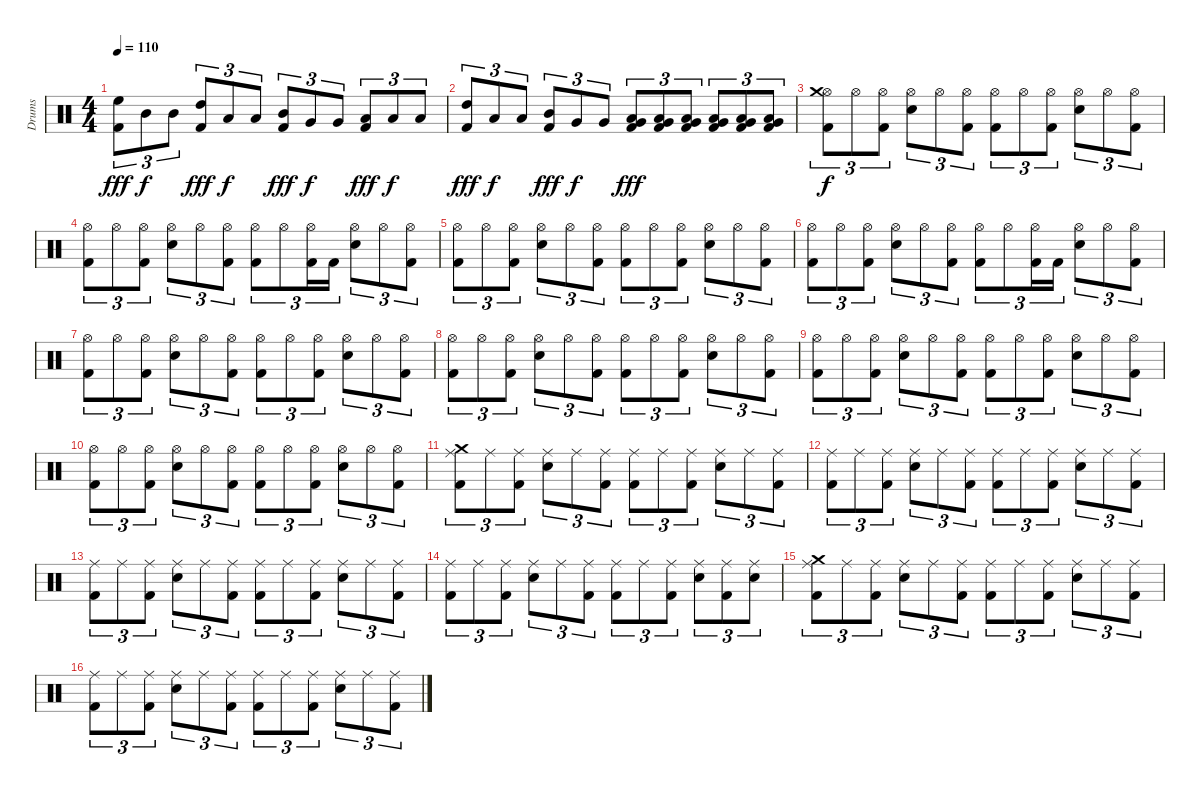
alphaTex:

\track ("Drums" "Drums") {instrument percussion}
\staff {score}
\articulation defaults
\ts (4 4)
\tempo 110
\clef neutral
\ks c
("Kick (hit) 2" "High Floor Tom (hit)").8{tu (3 2) dy fff} "Mid Tom (hit)".8{tu (3 2) dy f} "Mid Tom (hit)".8{tu (3 2)} ("Kick (hit) 2" "High Tom (hit)").8{tu (3 2) dy fff} "Low Tom (hit)".8{tu (3 2) dy f} "Low Tom (hit)".8{tu (3 2)} ("Kick (hit) 2" "Mid Tom (hit)").8{tu (3 2) dy fff} "Very Low Tom (hit)".8{tu (3 2) dy f} "Very Low Tom (hit)".8{tu (3 2)} ("Kick (hit) 2" "Low Tom (hit)").8{tu (3 2) dy fff} "Low Floor Tom (hit)".8{tu (3 2) dy f} "Low Floor Tom (hit)".8{tu (3 2)} |
("Kick (hit) 2" "High Tom (hit)").8{tu (3 2) dy fff} "Low Tom (hit)".8{tu (3 2) dy f} "Low Tom (hit)".8{tu (3 2)} ("Kick (hit) 2" "Mid Tom (hit)").8{tu (3 2) dy fff} "Very Low Tom (hit)".8{tu (3 2) dy f} "Very Low Tom (hit)".8{tu (3 2)} ("Kick (hit) 2" "Low Tom (hit)" "Very Low Tom (hit)").8{tu (3 2) dy fff} ("Kick (hit) 2" "Low Tom (hit)" "Very Low Tom (hit)").8{tu (3 2)} ("Kick (hit) 2" "Low Tom (hit)" "Very Low Tom (hit)").8{tu (3 2)} ("Kick (hit) 2" "Low Tom (hit)" "Very Low Tom (hit)").8{tu (3 2)} ("Kick (hit) 2" "Low Tom (hit)" "Very Low Tom (hit)").8{tu (3 2)} ("Kick (hit) 2" "Low Tom (hit)" "Very Low Tom (hit)").8{tu (3 2)} |
("Kick (hit) 2" "Hi-Hat (open)" "Crash medium (hit)").8{tu (3 2) dy f} "Hi-Hat (open)".8{tu (3 2)} ("Kick (hit) 2" "Hi-Hat (open)").8{tu (3 2)} ("Snare (hit) 2" "Hi-Hat (open)").8{tu (3 2)} "Hi-Hat (open)".8{tu (3 2)} ("Kick (hit) 2" "Hi-Hat (open)").8{tu (3 2)} ("Kick (hit) 2" "Hi-Hat (open)").8{tu (3 2)} "Hi-Hat (open)".8{tu (3 2)} ("Kick (hit) 2" "Hi-Hat (open)").8{tu (3 2)} ("Snare (hit) 2" "Hi-Hat (open)").8{tu (3 2)} "Hi-Hat (open)".8{tu (3 2)} ("Kick (hit) 2" "Hi-Hat (open)").8{tu (3 2)} |
("Kick (hit) 2" "Hi-Hat (open)").8{tu (3 2)} "Hi-Hat (open)".8{tu (3 2)} ("Kick (hit) 2" "Hi-Hat (open)").8{tu (3 2)} ("Snare (hit) 2" "Hi-Hat (open)").8{tu (3 2)} "Hi-Hat (open)".8{tu (3 2)} ("Kick (hit) 2" "Hi-Hat (open)").8{tu (3 2)} ("Kick (hit) 2" "Hi-Hat (open)").8{tu (3 2)} "Hi-Hat (open)".8{tu (3 2)} ("Kick (hit) 2" "Hi-Hat (open)").16{tu (3 2)} "Kick (hit) 2".16{tu (3 2)} ("Snare (hit) 2" "Hi-Hat (open)").8{tu (3 2)} "Hi-Hat (open)".8{tu (3 2)} ("Kick (hit) 2" "Hi-Hat (open)").8{tu (3 2)} |
("Kick (hit) 2" "Hi-Hat (open)").8{tu (3 2)} "Hi-Hat (open)".8{tu (3 2)} ("Kick (hit) 2" "Hi-Hat (open)").8{tu (3 2)} ("Snare (hit) 2" "Hi-Hat (open)").8{tu (3 2)} "Hi-Hat (open)".8{tu (3 2)} ("Kick (hit) 2" "Hi-Hat (open)").8{tu (3 2)} ("Kick (hit) 2" "Hi-Hat (open)").8{tu (3 2)} "Hi-Hat (open)".8{tu (3 2)} ("Kick (hit) 2" "Hi-Hat (open)").8{tu (3 2)} ("Snare (hit) 2" "Hi-Hat (open)").8{tu (3 2)} "Hi-Hat (open)".8{tu (3 2)} ("Kick (hit) 2" "Hi-Hat (open)").8{tu (3 2)} |
("Kick (hit) 2" "Hi-Hat (open)").8{tu (3 2)} "Hi-Hat (open)".8{tu (3 2)} ("Kick (hit) 2" "Hi-Hat (open)").8{tu (3 2)} ("Snare (hit) 2" "Hi-Hat (open)").8{tu (3 2)} "Hi-Hat (open)".8{tu (3 2)} ("Kick (hit) 2" "Hi-Hat (open)").8{tu (3 2)} ("Kick (hit) 2" "Hi-Hat (open)").8{tu (3 2)} "Hi-Hat (open)".8{tu (3 2)} ("Kick (hit) 2" "Hi-Hat (open)").16{tu (3 2)} "Kick (hit) 2".16{tu (3 2)} ("Snare (hit) 2" "Hi-Hat (open)").8{tu (3 2)} "Hi-Hat (open)".8{tu (3 2)} ("Kick (hit) 2" "Hi-Hat (open)").8{tu (3 2)} |
("Kick (hit) 2" "Hi-Hat (open)").8{tu (3 2)} "Hi-Hat (open)".8{tu (3 2)} ("Kick (hit) 2" "Hi-Hat (open)").8{tu (3 2)} ("Snare (hit) 2" "Hi-Hat (open)").8{tu (3 2)} "Hi-Hat (open)".8{tu (3 2)} ("Kick (hit) 2" "Hi-Hat (open)").8{tu (3 2)} ("Kick (hit) 2" "Hi-Hat (open)").8{tu (3 2)} "Hi-Hat (open)".8{tu (3 2)} ("Kick (hit) 2" "Hi-Hat (open)").8{tu (3 2)} ("Snare (hit) 2" "Hi-Hat (open)").8{tu (3 2)} "Hi-Hat (open)".8{tu (3 2)} ("Kick (hit) 2" "Hi-Hat (open)").8{tu (3 2)} |
("Kick (hit) 2" "Hi-Hat (open)").8{tu (3 2)} "Hi-Hat (open)".8{tu (3 2)} ("Kick (hit) 2" "Hi-Hat (open)").8{tu (3 2)} ("Snare (hit) 2" "Hi-Hat (open)").8{tu (3 2)} "Hi-Hat (open)".8{tu (3 2)} ("Kick (hit) 2" "Hi-Hat (open)").8{tu (3 2)} ("Kick (hit) 2" "Hi-Hat (open)").8{tu (3 2)} "Hi-Hat (open)".8{tu (3 2)} ("Kick (hit) 2" "Hi-Hat (open)").8{tu (3 2)} ("Snare (hit) 2" "Hi-Hat (open)").8{tu (3 2)} "Hi-Hat (open)".8{tu (3 2)} ("Kick (hit) 2" "Hi-Hat (open)").8{tu (3 2)} |
("Kick (hit) 2" "Hi-Hat (open)").8{tu (3 2)} "Hi-Hat (open)".8{tu (3 2)} ("Kick (hit) 2" "Hi-Hat (open)").8{tu (3 2)} ("Snare (hit) 2" "Hi-Hat (open)").8{tu (3 2)} "Hi-Hat (open)".8{tu (3 2)} ("Kick (hit) 2" "Hi-Hat (open)").8{tu (3 2)} ("Kick (hit) 2" "Hi-Hat (open)").8{tu (3 2)} "Hi-Hat (open)".8{tu (3 2)} ("Kick (hit) 2" "Hi-Hat (open)").8{tu (3 2)} ("Snare (hit) 2" "Hi-Hat (open)").8{tu (3 2)} "Hi-Hat (open)".8{tu (3 2)} ("Kick (hit) 2" "Hi-Hat (open)").8{tu (3 2)} |
("Kick (hit) 2" "Hi-Hat (open)").8{tu (3 2)} "Hi-Hat (open)".8{tu (3 2)} ("Kick (hit) 2" "Hi-Hat (open)").8{tu (3 2)} ("Snare (hit) 2" "Hi-Hat (open)").8{tu (3 2)} "Hi-Hat (open)".8{tu (3 2)} ("Kick (hit) 2" "Hi-Hat (open)").8{tu (3 2)} ("Kick (hit) 2" "Hi-Hat (open)").8{tu (3 2)} "Hi-Hat (open)".8{tu (3 2)} ("Kick (hit) 2" "Hi-Hat (open)").8{tu (3 2)} ("Snare (hit) 2" "Hi-Hat (open)").8{tu (3 2)} "Hi-Hat (open)".8{tu (3 2)} ("Kick (hit) 2" "Hi-Hat (open)").8{tu (3 2)} |
("Kick (hit) 2" "Ride (middle)" "Crash medium (hit)").8{tu (3 2)} "Ride (middle)".8{tu (3 2)} ("Kick (hit) 2" "Ride (middle)").8{tu (3 2)} ("Snare (hit) 2" "Ride (middle)").8{tu (3 2)} "Ride (middle)".8{tu (3 2)} ("Kick (hit) 2" "Ride (middle)").8{tu (3 2)} ("Kick (hit) 2" "Ride (middle)").8{tu (3 2)} "Ride (middle)".8{tu (3 2)} ("Kick (hit) 2" "Ride (middle)").8{tu (3 2)} ("Snare (hit) 2" "Ride (middle)").8{tu (3 2)} "Ride (middle)".8{tu (3 2)} ("Kick (hit) 2" "Ride (middle)").8{tu (3 2)} |
("Kick (hit) 2" "Ride (middle)").8{tu (3 2)} "Ride (middle)".8{tu (3 2)} ("Kick (hit) 2" "Ride (middle)").8{tu (3 2)} ("Snare (hit) 2" "Ride (middle)").8{tu (3 2)} "Ride (middle)".8{tu (3 2)} ("Kick (hit) 2" "Ride (middle)").8{tu (3 2)} ("Kick (hit) 2" "Ride (middle)").8{tu (3 2)} "Ride (middle)".8{tu (3 2)} ("Kick (hit) 2" "Ride (middle)").8{tu (3 2)} ("Snare (hit) 2" "Ride (middle)").8{tu (3 2)} "Ride (middle)".8{tu (3 2)} ("Kick (hit) 2" "Ride (middle)").8{tu (3 2)} |
("Kick (hit) 2" "Ride (middle)").8{tu (3 2)} "Ride (middle)".8{tu (3 2)} ("Kick (hit) 2" "Ride (middle)").8{tu (3 2)} ("Snare (hit) 2" "Ride (middle)").8{tu (3 2)} "Ride (middle)".8{tu (3 2)} ("Kick (hit) 2" "Ride (middle)").8{tu (3 2)} ("Kick (hit) 2" "Ride (middle)").8{tu (3 2)} "Ride (middle)".8{tu (3 2)} ("Kick (hit) 2" "Ride (middle)").8{tu (3 2)} ("Snare (hit) 2" "Ride (middle)").8{tu (3 2)} "Ride (middle)".8{tu (3 2)} ("Kick (hit) 2" "Ride (middle)").8{tu (3 2)} |
("Kick (hit) 2" "Ride (middle)").8{tu (3 2)} "Ride (middle)".8{tu (3 2)} ("Kick (hit) 2" "Ride (middle)").8{tu (3 2)} ("Snare (hit) 2" "Ride (middle)").8{tu (3 2)} "Ride (middle)".8{tu (3 2)} ("Kick (hit) 2" "Ride (middle)").8{tu (3 2)} ("Kick (hit) 2" "Ride (middle)").8{tu (3 2)} "Ride (middle)".8{tu (3 2)} ("Kick (hit) 2" "Ride (middle)").8{tu (3 2)} ("Snare (hit) 2" "Ride (middle)").8{tu (3 2)} ("Kick (hit) 2" "Ride (middle)").8{tu (3 2)} ("Snare (hit) 2" "Ride (middle)").8{tu (3 2)} |
("Kick (hit) 2" "Ride (middle)" "Crash medium (hit)").8{tu (3 2)} "Ride (middle)".8{tu (3 2)} ("Kick (hit) 2" "Ride (middle)").8{tu (3 2)} ("Snare (hit) 2" "Ride (middle)").8{tu (3 2)} "Ride (middle)".8{tu (3 2)} ("Kick (hit) 2" "Ride (middle)").8{tu (3 2)} ("Kick (hit) 2" "Ride (middle)").8{tu (3 2)} "Ride (middle)".8{tu (3 2)} ("Kick (hit) 2" "Ride (middle)").8{tu (3 2)} ("Snare (hit) 2" "Ride (middle)").8{tu (3 2)} "Ride (middle)".8{tu (3 2)} ("Kick (hit) 2" "Ride (middle)").8{tu (3 2)} |
("Kick (hit) 2" "Ride (middle)").8{tu (3 2)} "Ride (middle)".8{tu (3 2)} ("Kick (hit) 2" "Ride (middle)").8{tu (3 2)} ("Snare (hit) 2" "Ride (middle)").8{tu (3 2)} "Ride (middle)".8{tu (3 2)} ("Kick (hit) 2" "Ride (middle)").8{tu (3 2)} ("Kick (hit) 2" "Ride (middle)").8{tu (3 2)} "Ride (middle)".8{tu (3 2)} ("Kick (hit) 2" "Ride (middle)").8{tu (3 2)} ("Snare (hit) 2" "Ride (middle)").8{tu (3 2)} "Ride (middle)".8{tu (3 2)} ("Kick (hit) 2" "Ride (middle)").8{tu (3 2)}
